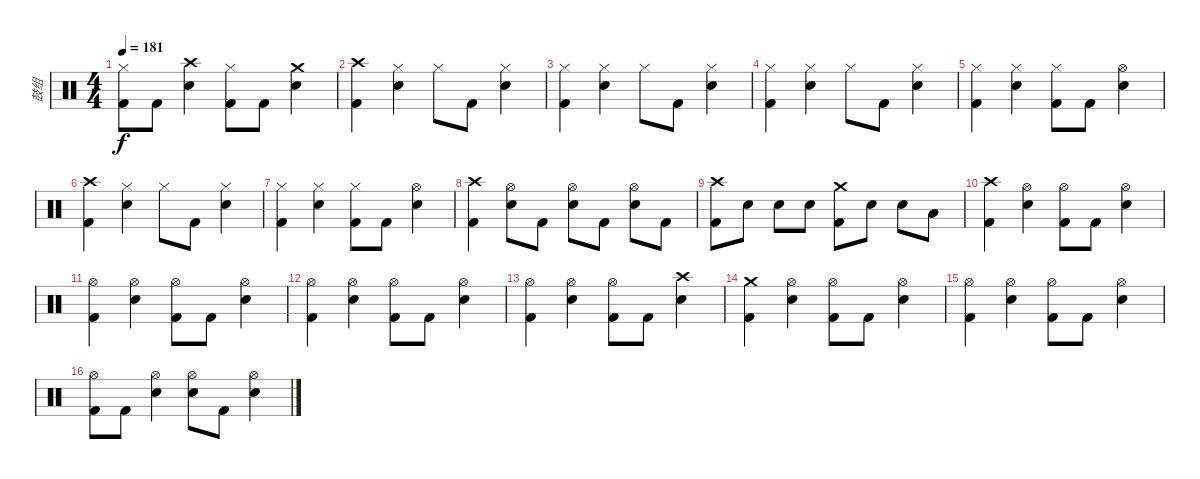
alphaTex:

\track ("鼓组" "鼓组") {instrument percussion}
\staff {score}
\articulation defaults
\ts (4 4)
\tempo 181
\clef neutral
\ks c
("Hi-Hat (closed)" "Kick (hit) 2").8{dy f} "Kick (hit) 2".8 ("Crash high (hit)" "Snare (hit) 2").4 ("Hi-Hat (closed)" "Kick (hit) 2").8 "Kick (hit) 2".8 ("Crash medium (hit)" "Snare (hit) 2").4 |
("Crash high (hit)" "Kick (hit) 2").4 ("Hi-Hat (closed)" "Snare (hit) 2").4 "Hi-Hat (closed)".8 "Kick (hit) 2".8 ("Hi-Hat (closed)" "Snare (hit) 2").4 |
("Hi-Hat (closed)" "Kick (hit) 2").4 ("Hi-Hat (closed)" "Snare (hit) 2").4 "Hi-Hat (closed)".8 "Kick (hit) 2".8 ("Hi-Hat (closed)" "Snare (hit) 2").4 |
("Hi-Hat (closed)" "Kick (hit) 2").4 ("Hi-Hat (closed)" "Snare (hit) 2").4 "Hi-Hat (closed)".8 "Kick (hit) 2".8 ("Hi-Hat (closed)" "Snare (hit) 2").4 |
("Hi-Hat (closed)" "Kick (hit) 2").4 ("Hi-Hat (closed)" "Snare (hit) 2").4 ("Hi-Hat (closed)" "Kick (hit) 2").8 "Kick (hit) 2".8 ("Hi-Hat (open)" "Snare (hit) 2").4 |
("Crash high (hit)" "Kick (hit) 2").4 ("Hi-Hat (closed)" "Snare (hit) 2").4 "Hi-Hat (closed)".8 "Kick (hit) 2".8 ("Hi-Hat (closed)" "Snare (hit) 2").4 |
("Hi-Hat (closed)" "Kick (hit) 2").4 ("Hi-Hat (closed)" "Snare (hit) 2").4 ("Hi-Hat (closed)" "Kick (hit) 2").8 "Kick (hit) 2".8 ("Hi-Hat (open)" "Snare (hit) 2").4 |
("Crash high (hit)" "Kick (hit) 2").4 ("Hi-Hat (open)" "Snare (hit) 2").8 "Kick (hit) 2".8 ("Hi-Hat (open)" "Snare (hit) 2").8 "Kick (hit) 2".8 ("Hi-Hat (open)" "Snare (hit) 2").8 "Kick (hit) 2".8 |
("Crash high (hit)" "Kick (hit) 2").8 "Snare (hit) 2".8 "Snare (hit) 2".8 "Snare (hit) 2".8 ("Crash medium (hit)" "Kick (hit) 2").8 "Snare (hit) 2".8 "Snare (hit) 2".8 "Low Tom (hit)".8 |
("Crash high (hit)" "Kick (hit) 2").4 ("Hi-Hat (open)" "Snare (hit) 2").4 ("Hi-Hat (open)" "Kick (hit) 2").8 "Kick (hit) 2".8 ("Hi-Hat (open)" "Snare (hit) 2").4 |
("Hi-Hat (open)" "Kick (hit) 2").4 ("Hi-Hat (open)" "Snare (hit) 2").4 ("Hi-Hat (open)" "Kick (hit) 2").8 "Kick (hit) 2".8 ("Hi-Hat (open)" "Snare (hit) 2").4 |
("Hi-Hat (open)" "Kick (hit) 2").4 ("Hi-Hat (open)" "Snare (hit) 2").4 ("Hi-Hat (open)" "Kick (hit) 2").8 "Kick (hit) 2".8 ("Hi-Hat (open)" "Snare (hit) 2").4 |
("Hi-Hat (open)" "Kick (hit) 2").4 ("Hi-Hat (open)" "Snare (hit) 2").4 ("Hi-Hat (open)" "Kick (hit) 2").8 "Kick (hit) 2".8 ("Crash high (hit)" "Snare (hit) 2").4 |
("Crash medium (hit)" "Kick (hit) 2").4 ("Hi-Hat (open)" "Snare (hit) 2").4 ("Hi-Hat (open)" "Kick (hit) 2").8 "Kick (hit) 2".8 ("Hi-Hat (open)" "Snare (hit) 2").4 |
("Hi-Hat (open)" "Kick (hit) 2").4 ("Hi-Hat (open)" "Snare (hit) 2").4 ("Hi-Hat (open)" "Kick (hit) 2").8 "Kick (hit) 2".8 ("Hi-Hat (open)" "Snare (hit) 2").4 |
("Hi-Hat (open)" "Kick (hit) 2").8 "Kick (hit) 2".8 ("Hi-Hat (open)" "Snare (hit) 2").4 ("Hi-Hat (open)" "Snare (hit) 2").8 "Kick (hit) 2".8 ("Hi-Hat (open)" "Snare (hit) 2").4
